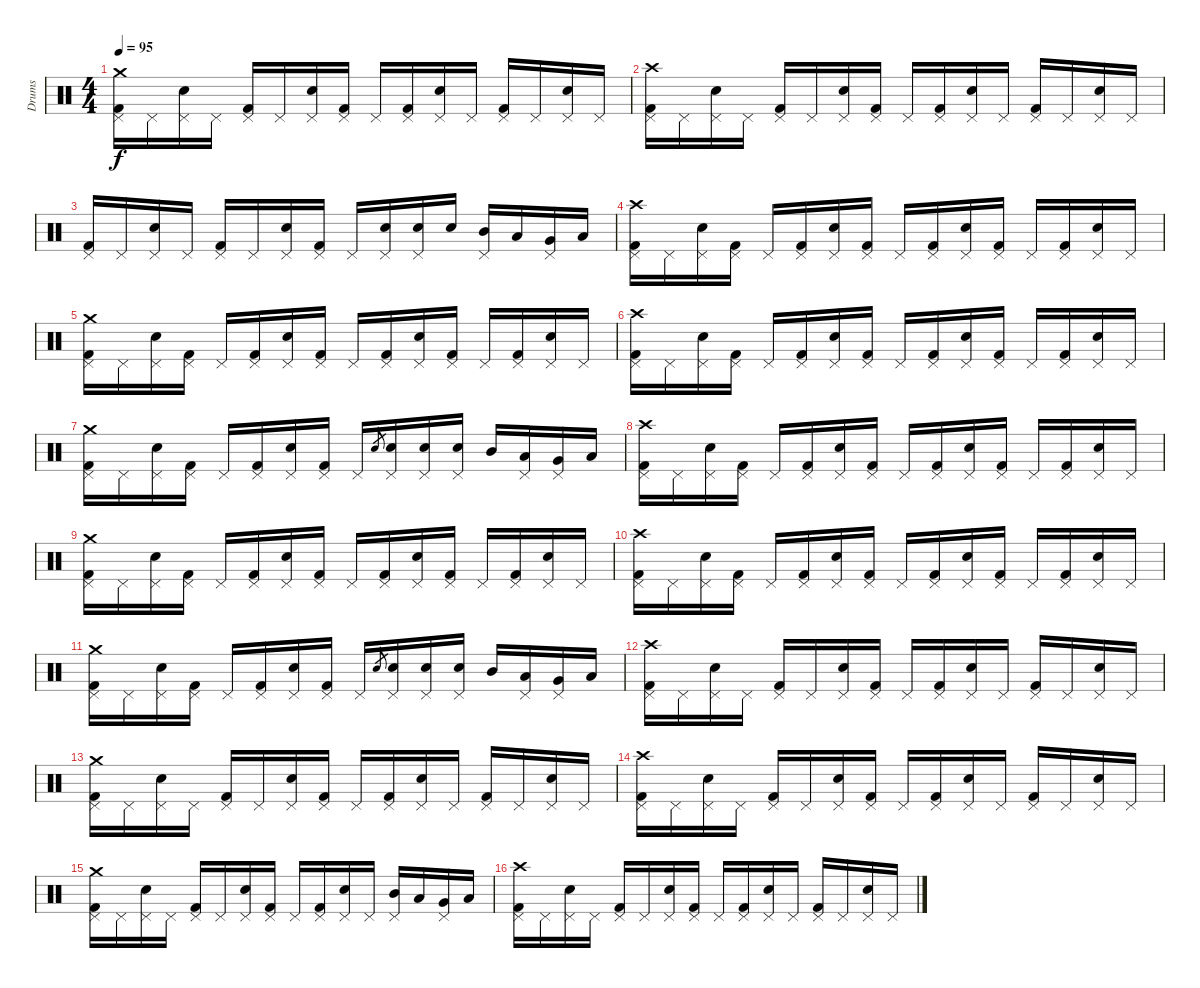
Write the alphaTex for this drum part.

\track ("Drums" "Drums") {instrument percussion}
\staff {score}
\articulation defaults
\ts (4 4)
\tempo 95
\clef neutral
\ks c
("Kick (hit) 2" "Pedal Hi-Hat (hit)" "Crash medium (hit)").16{dy f} "Pedal Hi-Hat (hit)".16 ("Snare (hit) 2" "Pedal Hi-Hat (hit)").16 "Pedal Hi-Hat (hit)".16 ("Kick (hit) 2" "Pedal Hi-Hat (hit)").16 "Pedal Hi-Hat (hit)".16 ("Snare (hit) 2" "Pedal Hi-Hat (hit)").16 ("Kick (hit) 2" "Pedal Hi-Hat (hit)").16 "Pedal Hi-Hat (hit)".16 ("Kick (hit) 2" "Pedal Hi-Hat (hit)").16 ("Snare (hit) 2" "Pedal Hi-Hat (hit)").16 "Pedal Hi-Hat (hit)".16 ("Kick (hit) 2" "Pedal Hi-Hat (hit)").16 "Pedal Hi-Hat (hit)".16 ("Snare (hit) 2" "Pedal Hi-Hat (hit)").16 "Pedal Hi-Hat (hit)".16 |
("Kick (hit) 2" "Pedal Hi-Hat (hit)" "Crash high (hit)").16 "Pedal Hi-Hat (hit)".16 ("Snare (hit) 2" "Pedal Hi-Hat (hit)").16 "Pedal Hi-Hat (hit)".16 ("Kick (hit) 2" "Pedal Hi-Hat (hit)").16 "Pedal Hi-Hat (hit)".16 ("Snare (hit) 2" "Pedal Hi-Hat (hit)").16 ("Kick (hit) 2" "Pedal Hi-Hat (hit)").16 "Pedal Hi-Hat (hit)".16 ("Kick (hit) 2" "Pedal Hi-Hat (hit)").16 ("Snare (hit) 2" "Pedal Hi-Hat (hit)").16 "Pedal Hi-Hat (hit)".16 ("Kick (hit) 2" "Pedal Hi-Hat (hit)").16 "Pedal Hi-Hat (hit)".16 ("Snare (hit) 2" "Pedal Hi-Hat (hit)").16 "Pedal Hi-Hat (hit)".16 |
("Kick (hit) 2" "Pedal Hi-Hat (hit)").16 "Pedal Hi-Hat (hit)".16 ("Snare (hit) 2" "Pedal Hi-Hat (hit)").16 "Pedal Hi-Hat (hit)".16 ("Kick (hit) 2" "Pedal Hi-Hat (hit)").16 "Pedal Hi-Hat (hit)".16 ("Snare (hit) 2" "Pedal Hi-Hat (hit)").16 ("Kick (hit) 2" "Pedal Hi-Hat (hit)").16 "Pedal Hi-Hat (hit)".16 ("Snare (hit) 2" "Pedal Hi-Hat (hit)").16 ("Snare (hit) 2" "Pedal Hi-Hat (hit)").16 "Snare (hit) 2".16 ("Mid Tom (hit)" "Pedal Hi-Hat (hit)").16 "Low Tom (hit)".16 ("Very Low Tom (hit)" "Pedal Hi-Hat (hit)").16 "Low Floor Tom (hit)".16 |
("Kick (hit) 2" "Pedal Hi-Hat (hit)" "Crash high (hit)").16 "Pedal Hi-Hat (hit)".16 ("Snare (hit) 2" "Pedal Hi-Hat (hit)").16 ("Kick (hit) 2" "Pedal Hi-Hat (hit)").16 "Pedal Hi-Hat (hit)".16 ("Kick (hit) 2" "Pedal Hi-Hat (hit)").16 ("Snare (hit) 2" "Pedal Hi-Hat (hit)").16 ("Kick (hit) 2" "Pedal Hi-Hat (hit)").16 "Pedal Hi-Hat (hit)".16 ("Kick (hit) 2" "Pedal Hi-Hat (hit)").16 ("Snare (hit) 2" "Pedal Hi-Hat (hit)").16 ("Kick (hit) 2" "Pedal Hi-Hat (hit)").16 "Pedal Hi-Hat (hit)".16 ("Kick (hit) 2" "Pedal Hi-Hat (hit)").16 ("Snare (hit) 2" "Pedal Hi-Hat (hit)").16 "Pedal Hi-Hat (hit)".16 |
("Kick (hit) 2" "Pedal Hi-Hat (hit)" "Crash medium (hit)").16 "Pedal Hi-Hat (hit)".16 ("Snare (hit) 2" "Pedal Hi-Hat (hit)").16 ("Kick (hit) 2" "Pedal Hi-Hat (hit)").16 "Pedal Hi-Hat (hit)".16 ("Kick (hit) 2" "Pedal Hi-Hat (hit)").16 ("Snare (hit) 2" "Pedal Hi-Hat (hit)").16 ("Kick (hit) 2" "Pedal Hi-Hat (hit)").16 "Pedal Hi-Hat (hit)".16 ("Kick (hit) 2" "Pedal Hi-Hat (hit)").16 ("Snare (hit) 2" "Pedal Hi-Hat (hit)").16 ("Kick (hit) 2" "Pedal Hi-Hat (hit)").16 "Pedal Hi-Hat (hit)".16 ("Kick (hit) 2" "Pedal Hi-Hat (hit)").16 ("Snare (hit) 2" "Pedal Hi-Hat (hit)").16 "Pedal Hi-Hat (hit)".16 |
("Kick (hit) 2" "Pedal Hi-Hat (hit)" "Crash high (hit)").16 "Pedal Hi-Hat (hit)".16 ("Snare (hit) 2" "Pedal Hi-Hat (hit)").16 ("Kick (hit) 2" "Pedal Hi-Hat (hit)").16 "Pedal Hi-Hat (hit)".16 ("Kick (hit) 2" "Pedal Hi-Hat (hit)").16 ("Snare (hit) 2" "Pedal Hi-Hat (hit)").16 ("Kick (hit) 2" "Pedal Hi-Hat (hit)").16 "Pedal Hi-Hat (hit)".16 ("Kick (hit) 2" "Pedal Hi-Hat (hit)").16 ("Snare (hit) 2" "Pedal Hi-Hat (hit)").16 ("Kick (hit) 2" "Pedal Hi-Hat (hit)").16 "Pedal Hi-Hat (hit)".16 ("Kick (hit) 2" "Pedal Hi-Hat (hit)").16 ("Snare (hit) 2" "Pedal Hi-Hat (hit)").16 "Pedal Hi-Hat (hit)".16 |
("Kick (hit) 2" "Pedal Hi-Hat (hit)" "Crash medium (hit)").16 "Pedal Hi-Hat (hit)".16 ("Snare (hit) 2" "Pedal Hi-Hat (hit)").16 ("Kick (hit) 2" "Pedal Hi-Hat (hit)").16 "Pedal Hi-Hat (hit)".16 ("Kick (hit) 2" "Pedal Hi-Hat (hit)").16 ("Snare (hit) 2" "Pedal Hi-Hat (hit)").16 ("Kick (hit) 2" "Pedal Hi-Hat (hit)").16 "Pedal Hi-Hat (hit)".16 "Snare (hit) 2".8{gr} ("Snare (hit) 2" "Pedal Hi-Hat (hit)").16 ("Snare (hit) 2" "Pedal Hi-Hat (hit)").16 ("Snare (hit) 2" "Pedal Hi-Hat (hit)").16 "Mid Tom (hit)".16 ("Low Tom (hit)" "Pedal Hi-Hat (hit)").16 ("Very Low Tom (hit)" "Pedal Hi-Hat (hit)").16 "Low Floor Tom (hit)".16 |
("Kick (hit) 2" "Pedal Hi-Hat (hit)" "Crash high (hit)").16 "Pedal Hi-Hat (hit)".16 ("Snare (hit) 2" "Pedal Hi-Hat (hit)").16 ("Kick (hit) 2" "Pedal Hi-Hat (hit)").16 "Pedal Hi-Hat (hit)".16 ("Kick (hit) 2" "Pedal Hi-Hat (hit)").16 ("Snare (hit) 2" "Pedal Hi-Hat (hit)").16 ("Kick (hit) 2" "Pedal Hi-Hat (hit)").16 "Pedal Hi-Hat (hit)".16 ("Kick (hit) 2" "Pedal Hi-Hat (hit)").16 ("Snare (hit) 2" "Pedal Hi-Hat (hit)").16 ("Kick (hit) 2" "Pedal Hi-Hat (hit)").16 "Pedal Hi-Hat (hit)".16 ("Kick (hit) 2" "Pedal Hi-Hat (hit)").16 ("Snare (hit) 2" "Pedal Hi-Hat (hit)").16 "Pedal Hi-Hat (hit)".16 |
("Kick (hit) 2" "Pedal Hi-Hat (hit)" "Crash medium (hit)").16 "Pedal Hi-Hat (hit)".16 ("Snare (hit) 2" "Pedal Hi-Hat (hit)").16 ("Kick (hit) 2" "Pedal Hi-Hat (hit)").16 "Pedal Hi-Hat (hit)".16 ("Kick (hit) 2" "Pedal Hi-Hat (hit)").16 ("Snare (hit) 2" "Pedal Hi-Hat (hit)").16 ("Kick (hit) 2" "Pedal Hi-Hat (hit)").16 "Pedal Hi-Hat (hit)".16 ("Kick (hit) 2" "Pedal Hi-Hat (hit)").16 ("Snare (hit) 2" "Pedal Hi-Hat (hit)").16 ("Kick (hit) 2" "Pedal Hi-Hat (hit)").16 "Pedal Hi-Hat (hit)".16 ("Kick (hit) 2" "Pedal Hi-Hat (hit)").16 ("Snare (hit) 2" "Pedal Hi-Hat (hit)").16 "Pedal Hi-Hat (hit)".16 |
("Kick (hit) 2" "Pedal Hi-Hat (hit)" "Crash high (hit)").16 "Pedal Hi-Hat (hit)".16 ("Snare (hit) 2" "Pedal Hi-Hat (hit)").16 ("Kick (hit) 2" "Pedal Hi-Hat (hit)").16 "Pedal Hi-Hat (hit)".16 ("Kick (hit) 2" "Pedal Hi-Hat (hit)").16 ("Snare (hit) 2" "Pedal Hi-Hat (hit)").16 ("Kick (hit) 2" "Pedal Hi-Hat (hit)").16 "Pedal Hi-Hat (hit)".16 ("Kick (hit) 2" "Pedal Hi-Hat (hit)").16 ("Snare (hit) 2" "Pedal Hi-Hat (hit)").16 ("Kick (hit) 2" "Pedal Hi-Hat (hit)").16 "Pedal Hi-Hat (hit)".16 ("Kick (hit) 2" "Pedal Hi-Hat (hit)").16 ("Snare (hit) 2" "Pedal Hi-Hat (hit)").16 "Pedal Hi-Hat (hit)".16 |
("Kick (hit) 2" "Pedal Hi-Hat (hit)" "Crash medium (hit)").16 "Pedal Hi-Hat (hit)".16 ("Snare (hit) 2" "Pedal Hi-Hat (hit)").16 ("Kick (hit) 2" "Pedal Hi-Hat (hit)").16 "Pedal Hi-Hat (hit)".16 ("Kick (hit) 2" "Pedal Hi-Hat (hit)").16 ("Snare (hit) 2" "Pedal Hi-Hat (hit)").16 ("Kick (hit) 2" "Pedal Hi-Hat (hit)").16 "Pedal Hi-Hat (hit)".16 "Snare (hit) 2".8{gr} ("Snare (hit) 2" "Pedal Hi-Hat (hit)").16 ("Snare (hit) 2" "Pedal Hi-Hat (hit)").16 ("Snare (hit) 2" "Pedal Hi-Hat (hit)").16 "Mid Tom (hit)".16 ("Low Tom (hit)" "Pedal Hi-Hat (hit)").16 ("Very Low Tom (hit)" "Pedal Hi-Hat (hit)").16 "Low Floor Tom (hit)".16 |
("Kick (hit) 2" "Pedal Hi-Hat (hit)" "Crash high (hit)").16 "Pedal Hi-Hat (hit)".16 ("Snare (hit) 2" "Pedal Hi-Hat (hit)").16 "Pedal Hi-Hat (hit)".16 ("Kick (hit) 2" "Pedal Hi-Hat (hit)").16 "Pedal Hi-Hat (hit)".16 ("Snare (hit) 2" "Pedal Hi-Hat (hit)").16 ("Kick (hit) 2" "Pedal Hi-Hat (hit)").16 "Pedal Hi-Hat (hit)".16 ("Kick (hit) 2" "Pedal Hi-Hat (hit)").16 ("Snare (hit) 2" "Pedal Hi-Hat (hit)").16 "Pedal Hi-Hat (hit)".16 ("Kick (hit) 2" "Pedal Hi-Hat (hit)").16 "Pedal Hi-Hat (hit)".16 ("Snare (hit) 2" "Pedal Hi-Hat (hit)").16 "Pedal Hi-Hat (hit)".16 |
("Kick (hit) 2" "Pedal Hi-Hat (hit)" "Crash medium (hit)").16 "Pedal Hi-Hat (hit)".16 ("Snare (hit) 2" "Pedal Hi-Hat (hit)").16 "Pedal Hi-Hat (hit)".16 ("Kick (hit) 2" "Pedal Hi-Hat (hit)").16 "Pedal Hi-Hat (hit)".16 ("Snare (hit) 2" "Pedal Hi-Hat (hit)").16 ("Kick (hit) 2" "Pedal Hi-Hat (hit)").16 "Pedal Hi-Hat (hit)".16 ("Kick (hit) 2" "Pedal Hi-Hat (hit)").16 ("Snare (hit) 2" "Pedal Hi-Hat (hit)").16 "Pedal Hi-Hat (hit)".16 ("Kick (hit) 2" "Pedal Hi-Hat (hit)").16 "Pedal Hi-Hat (hit)".16 ("Snare (hit) 2" "Pedal Hi-Hat (hit)").16 "Pedal Hi-Hat (hit)".16 |
("Kick (hit) 2" "Pedal Hi-Hat (hit)" "Crash high (hit)").16 "Pedal Hi-Hat (hit)".16 ("Snare (hit) 2" "Pedal Hi-Hat (hit)").16 "Pedal Hi-Hat (hit)".16 ("Kick (hit) 2" "Pedal Hi-Hat (hit)").16 "Pedal Hi-Hat (hit)".16 ("Snare (hit) 2" "Pedal Hi-Hat (hit)").16 ("Kick (hit) 2" "Pedal Hi-Hat (hit)").16 "Pedal Hi-Hat (hit)".16 ("Kick (hit) 2" "Pedal Hi-Hat (hit)").16 ("Snare (hit) 2" "Pedal Hi-Hat (hit)").16 "Pedal Hi-Hat (hit)".16 ("Kick (hit) 2" "Pedal Hi-Hat (hit)").16 "Pedal Hi-Hat (hit)".16 ("Snare (hit) 2" "Pedal Hi-Hat (hit)").16 "Pedal Hi-Hat (hit)".16 |
("Kick (hit) 2" "Pedal Hi-Hat (hit)" "Crash medium (hit)").16 "Pedal Hi-Hat (hit)".16 ("Snare (hit) 2" "Pedal Hi-Hat (hit)").16 "Pedal Hi-Hat (hit)".16 ("Kick (hit) 2" "Pedal Hi-Hat (hit)").16 "Pedal Hi-Hat (hit)".16 ("Snare (hit) 2" "Pedal Hi-Hat (hit)").16 ("Kick (hit) 2" "Pedal Hi-Hat (hit)").16 "Pedal Hi-Hat (hit)".16 ("Kick (hit) 2" "Pedal Hi-Hat (hit)").16 ("Snare (hit) 2" "Pedal Hi-Hat (hit)").16 "Pedal Hi-Hat (hit)".16 ("Mid Tom (hit)" "Pedal Hi-Hat (hit)").16 "Low Tom (hit)".16 ("Very Low Tom (hit)" "Pedal Hi-Hat (hit)").16 "Low Floor Tom (hit)".16 |
("Kick (hit) 2" "Pedal Hi-Hat (hit)" "Crash high (hit)").16 "Pedal Hi-Hat (hit)".16 ("Snare (hit) 2" "Pedal Hi-Hat (hit)").16 "Pedal Hi-Hat (hit)".16 ("Kick (hit) 2" "Pedal Hi-Hat (hit)").16 "Pedal Hi-Hat (hit)".16 ("Snare (hit) 2" "Pedal Hi-Hat (hit)").16 ("Kick (hit) 2" "Pedal Hi-Hat (hit)").16 "Pedal Hi-Hat (hit)".16 ("Kick (hit) 2" "Pedal Hi-Hat (hit)").16 ("Snare (hit) 2" "Pedal Hi-Hat (hit)").16 "Pedal Hi-Hat (hit)".16 ("Kick (hit) 2" "Pedal Hi-Hat (hit)").16 "Pedal Hi-Hat (hit)".16 ("Snare (hit) 2" "Pedal Hi-Hat (hit)").16 "Pedal Hi-Hat (hit)".16
